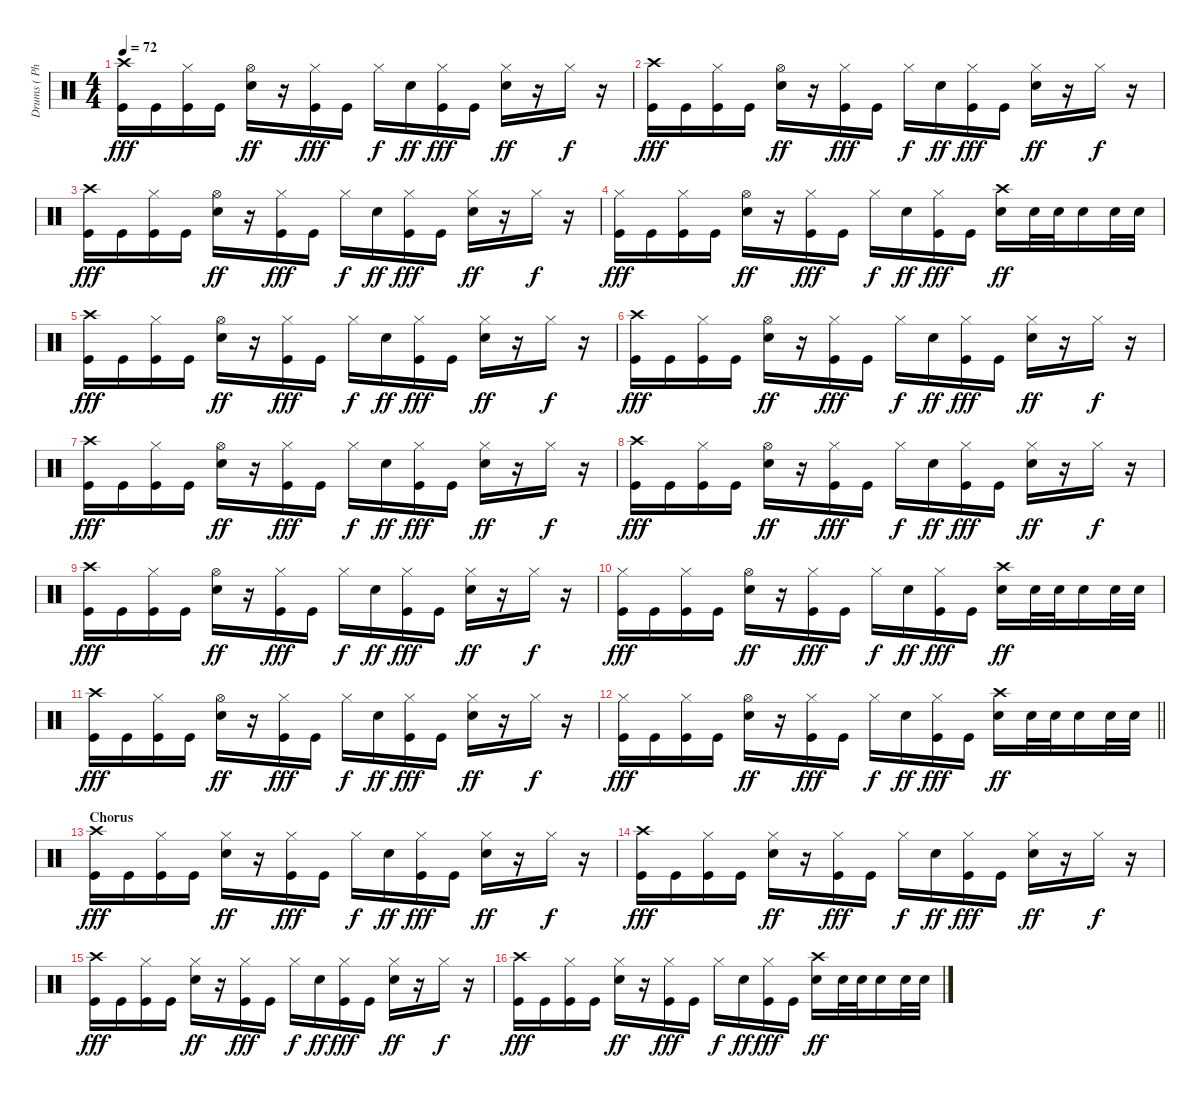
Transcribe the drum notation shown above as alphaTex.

\track ("Drums ( Phillip Selway )" "Drums ( Ph") {instrument percussion}
\staff {score}
\articulation defaults
\ts (4 4)
\tempo 72
\clef neutral
\ks c
("Crash high (hit)" "Kick (hit)").16{dy fff} "Kick (hit)".16 ("Hi-Hat (closed)" "Kick (hit)").16 "Kick (hit)".16 ("Hi-Hat (open)" "Electric Snare (hit)").16{dy ff} r.16 ("Hi-Hat (closed)" "Kick (hit)").16{dy fff} "Kick (hit)".16 "Hi-Hat (closed)".16{dy f} "Electric Snare (hit)".16{dy ff} ("Hi-Hat (closed)" "Kick (hit)").16{dy fff} "Kick (hit)".16 ("Hi-Hat (closed)" "Electric Snare (hit)").16{dy ff} r.16 "Hi-Hat (closed)".16{dy f} r.16 |
("Crash high (hit)" "Kick (hit)").16{dy fff} "Kick (hit)".16 ("Hi-Hat (closed)" "Kick (hit)").16 "Kick (hit)".16 ("Hi-Hat (open)" "Electric Snare (hit)").16{dy ff} r.16 ("Hi-Hat (closed)" "Kick (hit)").16{dy fff} "Kick (hit)".16 "Hi-Hat (closed)".16{dy f} "Electric Snare (hit)".16{dy ff} ("Hi-Hat (closed)" "Kick (hit)").16{dy fff} "Kick (hit)".16 ("Hi-Hat (closed)" "Electric Snare (hit)").16{dy ff} r.16 "Hi-Hat (closed)".16{dy f} r.16 |
("Crash high (hit)" "Kick (hit)").16{dy fff} "Kick (hit)".16 ("Hi-Hat (closed)" "Kick (hit)").16 "Kick (hit)".16 ("Hi-Hat (open)" "Electric Snare (hit)").16{dy ff} r.16 ("Hi-Hat (closed)" "Kick (hit)").16{dy fff} "Kick (hit)".16 "Hi-Hat (closed)".16{dy f} "Electric Snare (hit)".16{dy ff} ("Hi-Hat (closed)" "Kick (hit)").16{dy fff} "Kick (hit)".16 ("Hi-Hat (closed)" "Electric Snare (hit)").16{dy ff} r.16 "Hi-Hat (closed)".16{dy f} r.16 |
("Hi-Hat (closed)" "Kick (hit)").16{dy fff} "Kick (hit)".16 ("Hi-Hat (closed)" "Kick (hit)").16 "Kick (hit)".16 ("Hi-Hat (open)" "Electric Snare (hit)").16{dy ff} r.16 ("Hi-Hat (closed)" "Kick (hit)").16{dy fff} "Kick (hit)".16 "Hi-Hat (closed)".16{dy f} "Electric Snare (hit)".16{dy ff} ("Hi-Hat (closed)" "Kick (hit)").16{dy fff} "Kick (hit)".16 ("Crash high (hit)" "Electric Snare (hit)").16{dy ff} "Electric Snare (hit)".32 "Electric Snare (hit)".32 "Electric Snare (hit)".16 "Electric Snare (hit)".32 "Electric Snare (hit)".32 |
("Crash high (hit)" "Kick (hit)").16{dy fff} "Kick (hit)".16 ("Hi-Hat (closed)" "Kick (hit)").16 "Kick (hit)".16 ("Hi-Hat (open)" "Electric Snare (hit)").16{dy ff} r.16 ("Hi-Hat (closed)" "Kick (hit)").16{dy fff} "Kick (hit)".16 "Hi-Hat (closed)".16{dy f} "Electric Snare (hit)".16{dy ff} ("Hi-Hat (closed)" "Kick (hit)").16{dy fff} "Kick (hit)".16 ("Hi-Hat (closed)" "Electric Snare (hit)").16{dy ff} r.16 "Hi-Hat (closed)".16{dy f} r.16 |
("Crash high (hit)" "Kick (hit)").16{dy fff} "Kick (hit)".16 ("Hi-Hat (closed)" "Kick (hit)").16 "Kick (hit)".16 ("Hi-Hat (open)" "Electric Snare (hit)").16{dy ff} r.16 ("Hi-Hat (closed)" "Kick (hit)").16{dy fff} "Kick (hit)".16 "Hi-Hat (closed)".16{dy f} "Electric Snare (hit)".16{dy ff} ("Hi-Hat (closed)" "Kick (hit)").16{dy fff} "Kick (hit)".16 ("Hi-Hat (closed)" "Electric Snare (hit)").16{dy ff} r.16 "Hi-Hat (closed)".16{dy f} r.16 |
("Crash high (hit)" "Kick (hit)").16{dy fff} "Kick (hit)".16 ("Hi-Hat (closed)" "Kick (hit)").16 "Kick (hit)".16 ("Hi-Hat (open)" "Electric Snare (hit)").16{dy ff} r.16 ("Hi-Hat (closed)" "Kick (hit)").16{dy fff} "Kick (hit)".16 "Hi-Hat (closed)".16{dy f} "Electric Snare (hit)".16{dy ff} ("Hi-Hat (closed)" "Kick (hit)").16{dy fff} "Kick (hit)".16 ("Hi-Hat (closed)" "Electric Snare (hit)").16{dy ff} r.16 "Hi-Hat (closed)".16{dy f} r.16 |
("Crash high (hit)" "Kick (hit)").16{dy fff} "Kick (hit)".16 ("Hi-Hat (closed)" "Kick (hit)").16 "Kick (hit)".16 ("Hi-Hat (open)" "Electric Snare (hit)").16{dy ff} r.16 ("Hi-Hat (closed)" "Kick (hit)").16{dy fff} "Kick (hit)".16 "Hi-Hat (closed)".16{dy f} "Electric Snare (hit)".16{dy ff} ("Hi-Hat (closed)" "Kick (hit)").16{dy fff} "Kick (hit)".16 ("Hi-Hat (closed)" "Electric Snare (hit)").16{dy ff} r.16 "Hi-Hat (closed)".16{dy f} r.16 |
("Crash high (hit)" "Kick (hit)").16{dy fff} "Kick (hit)".16 ("Hi-Hat (closed)" "Kick (hit)").16 "Kick (hit)".16 ("Hi-Hat (open)" "Electric Snare (hit)").16{dy ff} r.16 ("Hi-Hat (closed)" "Kick (hit)").16{dy fff} "Kick (hit)".16 "Hi-Hat (closed)".16{dy f} "Electric Snare (hit)".16{dy ff} ("Hi-Hat (closed)" "Kick (hit)").16{dy fff} "Kick (hit)".16 ("Hi-Hat (closed)" "Electric Snare (hit)").16{dy ff} r.16 "Hi-Hat (closed)".16{dy f} r.16 |
("Hi-Hat (closed)" "Kick (hit)").16{dy fff} "Kick (hit)".16 ("Hi-Hat (closed)" "Kick (hit)").16 "Kick (hit)".16 ("Hi-Hat (open)" "Electric Snare (hit)").16{dy ff} r.16 ("Hi-Hat (closed)" "Kick (hit)").16{dy fff} "Kick (hit)".16 "Hi-Hat (closed)".16{dy f} "Electric Snare (hit)".16{dy ff} ("Hi-Hat (closed)" "Kick (hit)").16{dy fff} "Kick (hit)".16 ("Crash high (hit)" "Electric Snare (hit)").16{dy ff} "Electric Snare (hit)".32 "Electric Snare (hit)".32 "Electric Snare (hit)".16 "Electric Snare (hit)".32 "Electric Snare (hit)".32 |
("Crash high (hit)" "Kick (hit)").16{dy fff} "Kick (hit)".16 ("Hi-Hat (closed)" "Kick (hit)").16 "Kick (hit)".16 ("Hi-Hat (open)" "Electric Snare (hit)").16{dy ff} r.16 ("Hi-Hat (closed)" "Kick (hit)").16{dy fff} "Kick (hit)".16 "Hi-Hat (closed)".16{dy f} "Electric Snare (hit)".16{dy ff} ("Hi-Hat (closed)" "Kick (hit)").16{dy fff} "Kick (hit)".16 ("Hi-Hat (closed)" "Electric Snare (hit)").16{dy ff} r.16 "Hi-Hat (closed)".16{dy f} r.16 |
\barLineRight lightlight
("Hi-Hat (closed)" "Kick (hit)").16{dy fff} "Kick (hit)".16 ("Hi-Hat (closed)" "Kick (hit)").16 "Kick (hit)".16 ("Hi-Hat (open)" "Electric Snare (hit)").16{dy ff} r.16 ("Hi-Hat (closed)" "Kick (hit)").16{dy fff} "Kick (hit)".16 "Hi-Hat (closed)".16{dy f} "Electric Snare (hit)".16{dy ff} ("Hi-Hat (closed)" "Kick (hit)").16{dy fff} "Kick (hit)".16 ("Crash high (hit)" "Electric Snare (hit)").16{dy ff} "Electric Snare (hit)".32 "Electric Snare (hit)".32 "Electric Snare (hit)".16 "Electric Snare (hit)".32 "Electric Snare (hit)".32 |
\section ("" "Chorus")
("Crash high (hit)" "Kick (hit)").16{dy fff} "Kick (hit)".16 ("Hi-Hat (closed)" "Kick (hit)").16 "Kick (hit)".16 ("Hi-Hat (closed)" "Electric Snare (hit)").16{dy ff} r.16 ("Hi-Hat (closed)" "Kick (hit)").16{dy fff} "Kick (hit)".16 "Hi-Hat (closed)".16{dy f} "Electric Snare (hit)".16{dy ff} ("Hi-Hat (closed)" "Kick (hit)").16{dy fff} "Kick (hit)".16 ("Hi-Hat (closed)" "Electric Snare (hit)").16{dy ff} r.16 "Hi-Hat (closed)".16{dy f} r.16 |
("Crash high (hit)" "Kick (hit)").16{dy fff} "Kick (hit)".16 ("Hi-Hat (closed)" "Kick (hit)").16 "Kick (hit)".16 ("Hi-Hat (closed)" "Electric Snare (hit)").16{dy ff} r.16 ("Hi-Hat (closed)" "Kick (hit)").16{dy fff} "Kick (hit)".16 "Hi-Hat (closed)".16{dy f} "Electric Snare (hit)".16{dy ff} ("Hi-Hat (closed)" "Kick (hit)").16{dy fff} "Kick (hit)".16 ("Hi-Hat (closed)" "Electric Snare (hit)").16{dy ff} r.16 "Hi-Hat (closed)".16{dy f} r.16 |
("Crash high (hit)" "Kick (hit)").16{dy fff} "Kick (hit)".16 ("Hi-Hat (closed)" "Kick (hit)").16 "Kick (hit)".16 ("Hi-Hat (closed)" "Electric Snare (hit)").16{dy ff} r.16 ("Hi-Hat (closed)" "Kick (hit)").16{dy fff} "Kick (hit)".16 "Hi-Hat (closed)".16{dy f} "Electric Snare (hit)".16{dy ff} ("Hi-Hat (closed)" "Kick (hit)").16{dy fff} "Kick (hit)".16 ("Hi-Hat (closed)" "Electric Snare (hit)").16{dy ff} r.16 "Hi-Hat (closed)".16{dy f} r.16 |
("Crash high (hit)" "Kick (hit)").16{dy fff} "Kick (hit)".16 ("Hi-Hat (closed)" "Kick (hit)").16 "Kick (hit)".16 ("Hi-Hat (closed)" "Electric Snare (hit)").16{dy ff} r.16 ("Hi-Hat (closed)" "Kick (hit)").16{dy fff} "Kick (hit)".16 "Hi-Hat (closed)".16{dy f} "Electric Snare (hit)".16{dy ff} ("Hi-Hat (closed)" "Kick (hit)").16{dy fff} "Kick (hit)".16 ("Crash high (hit)" "Electric Snare (hit)").16{dy ff} "Electric Snare (hit)".32 "Electric Snare (hit)".32 "Electric Snare (hit)".16 "Electric Snare (hit)".32 "Electric Snare (hit)".32
